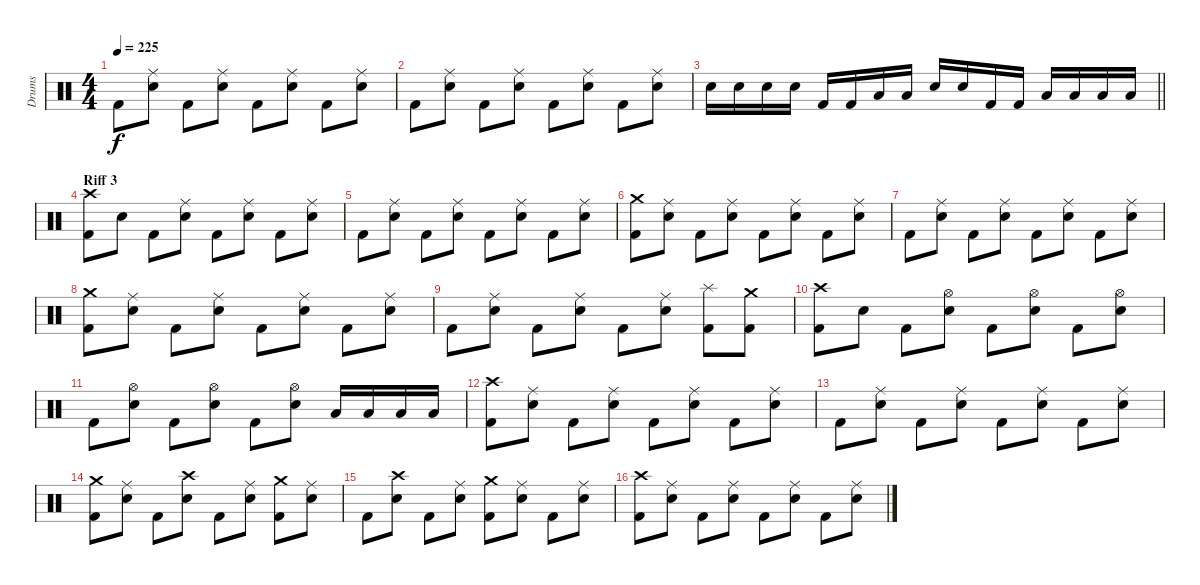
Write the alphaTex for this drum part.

\track ("Drums" "Drums") {instrument percussion}
\staff {score}
\articulation defaults
\ts (4 4)
\tempo 225
\clef neutral
\ks c "Kick (hit) 2".8{dy f}
("Ride (middle)" "Electric Snare (hit)").8 "Kick (hit) 2".8 ("Ride (middle)" "Electric Snare (hit)").8 "Kick (hit) 2".8 ("Ride (middle)" "Electric Snare (hit)").8 "Kick (hit) 2".8 ("Ride (middle)" "Electric Snare (hit)").8 |
"Kick (hit) 2".8 ("Ride (middle)" "Electric Snare (hit)").8 "Kick (hit) 2".8 ("Ride (middle)" "Electric Snare (hit)").8 "Kick (hit) 2".8 ("Ride (middle)" "Electric Snare (hit)").8 "Kick (hit) 2".8 ("Ride (middle)" "Electric Snare (hit)").8 |
\barLineRight lightlight "Electric Snare (hit)".16 "Electric Snare (hit)".16 "Electric Snare (hit)".16 "Electric Snare (hit)".16 "Kick (hit) 2".16 "Kick (hit) 2".16 "Low Tom (hit)".16 "Low Tom (hit)".16 "Electric Snare (hit)".16 "Electric Snare (hit)".16 "Kick (hit) 2".16 "Kick (hit) 2".16 "Low Tom (hit)".16 "Low Tom (hit)".16 "Low Tom (hit)".16 "Low Tom (hit)".16
|
\section ("" "Riff 3")
("Crash high (hit)" "Kick (hit) 2").8 "Electric Snare (hit)".8 "Kick (hit) 2".8 ("Ride (middle)" "Electric Snare (hit)").8 "Kick (hit) 2".8 ("Ride (middle)" "Electric Snare (hit)").8 "Kick (hit) 2".8 ("Ride (middle)" "Electric Snare (hit)").8 |
"Kick (hit) 2".8 ("Ride (middle)" "Electric Snare (hit)").8 "Kick (hit) 2".8 ("Ride (middle)" "Electric Snare (hit)").8 "Kick (hit) 2".8 ("Ride (middle)" "Electric Snare (hit)").8 "Kick (hit) 2".8 ("Ride (middle)" "Electric Snare (hit)").8 |
("Crash medium (hit)" "Kick (hit) 2").8 ("Ride (middle)" "Electric Snare (hit)").8 "Kick (hit) 2".8 ("Ride (middle)" "Electric Snare (hit)").8 "Kick (hit) 2".8 ("Ride (middle)" "Electric Snare (hit)").8 "Kick (hit) 2".8 ("Ride (middle)" "Electric Snare (hit)").8 |
"Kick (hit) 2".8 ("Ride (middle)" "Electric Snare (hit)").8 "Kick (hit) 2".8 ("Ride (middle)" "Electric Snare (hit)").8 "Kick (hit) 2".8 ("Ride (middle)" "Electric Snare (hit)").8 "Kick (hit) 2".8 ("Ride (middle)" "Electric Snare (hit)").8 |
("Kick (hit) 2" "Crash medium (hit)").8 ("Electric Snare (hit)" "Ride (middle)").8 "Kick (hit) 2".8 ("Electric Snare (hit)" "Ride (middle)").8 "Kick (hit) 2".8 ("Electric Snare (hit)" "Ride (middle)").8 "Kick (hit) 2".8 ("Electric Snare (hit)" "Ride (middle)").8 |
"Kick (hit) 2".8 ("Electric Snare (hit)" "Ride (middle)").8 "Kick (hit) 2".8 ("Electric Snare (hit)" "Ride (middle)").8 "Kick (hit) 2".8 ("Electric Snare (hit)" "Ride (middle)").8 ("Kick (hit) 2" "Splash (hit)").8 ("Kick (hit) 2" "Crash medium (hit)").8 |
("Kick (hit) 2" "Crash high (hit)").8 "Electric Snare (hit)".8 "Kick (hit) 2".8 ("Electric Snare (hit)" "Hi-Hat (open)").8 "Kick (hit) 2".8 ("Electric Snare (hit)" "Hi-Hat (open)").8 "Kick (hit) 2".8 ("Electric Snare (hit)" "Hi-Hat (open)").8 |
"Kick (hit) 2".8 ("Electric Snare (hit)" "Hi-Hat (open)").8 "Kick (hit) 2".8 ("Electric Snare (hit)" "Hi-Hat (open)").8 "Kick (hit) 2".8 ("Electric Snare (hit)" "Hi-Hat (open)").8 "Low Tom (hit)".16 "Low Tom (hit)".16 "Low Tom (hit)".16 "Low Tom (hit)".16 |
("Kick (hit) 2" "Crash high (hit)").8 ("Electric Snare (hit)" "Ride (middle)").8 "Kick (hit) 2".8 ("Electric Snare (hit)" "Ride (middle)").8 "Kick (hit) 2".8 ("Electric Snare (hit)" "Ride (middle)").8 "Kick (hit) 2".8 ("Electric Snare (hit)" "Ride (middle)").8 |
"Kick (hit) 2".8 ("Electric Snare (hit)" "Ride (middle)").8 "Kick (hit) 2".8 ("Electric Snare (hit)" "Ride (middle)").8 "Kick (hit) 2".8 ("Electric Snare (hit)" "Ride (middle)").8 "Kick (hit) 2".8 ("Electric Snare (hit)" "Ride (middle)").8 |
("Kick (hit) 2" "Crash medium (hit)").8 ("Electric Snare (hit)" "Ride (middle)").8 "Kick (hit) 2".8 ("Electric Snare (hit)" "Crash high (hit)").8 "Kick (hit) 2".8 ("Electric Snare (hit)" "Ride (middle)").8 ("Kick (hit) 2" "Crash medium (hit)").8 ("Electric Snare (hit)" "Ride (middle)").8 |
"Kick (hit) 2".8 ("Electric Snare (hit)" "Crash high (hit)").8 "Kick (hit) 2".8 ("Electric Snare (hit)" "Ride (middle)").8 ("Kick (hit) 2" "Crash medium (hit)").8 ("Electric Snare (hit)" "Ride (middle)").8 "Kick (hit) 2".8 ("Electric Snare (hit)" "Ride (middle)").8 |
("Kick (hit) 2" "Crash high (hit)").8 ("Electric Snare (hit)" "Ride (middle)").8 "Kick (hit) 2".8 ("Electric Snare (hit)" "Ride (middle)").8 "Kick (hit) 2".8 ("Electric Snare (hit)" "Ride (middle)").8 "Kick (hit) 2".8 ("Electric Snare (hit)" "Ride (middle)").8
